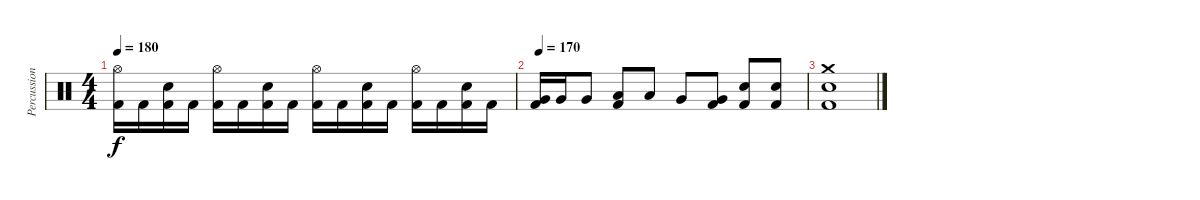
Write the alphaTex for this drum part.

\track ("Percussion" "Percussion") {instrument percussion}
\staff {score}
\articulation defaults
\ts (4 4)
\tempo 180
\clef neutral
\ks c
("Hi-Hat (open)" "Kick (hit) 2").16{dy f} "Kick (hit) 2".16 ("Snare (hit) 2" "Kick (hit) 2").16 "Kick (hit) 2".16 ("Hi-Hat (open)" "Kick (hit) 2").16 "Kick (hit) 2".16 ("Snare (hit) 2" "Kick (hit) 2").16 "Kick (hit) 2".16 ("Hi-Hat (open)" "Kick (hit) 2").16 "Kick (hit) 2".16 ("Snare (hit) 2" "Kick (hit) 2").16 "Kick (hit) 2".16 ("Hi-Hat (open)" "Kick (hit) 2").16 "Kick (hit) 2".16 ("Snare (hit) 2" "Kick (hit) 2").16 "Kick (hit) 2".16 |
\tempo 170
("Very Low Tom (hit)" "Kick (hit) 2").16 "Very Low Tom (hit)".16 "Very Low Tom (hit)".8 ("Low Tom (hit)" "Kick (hit) 2").8 "Low Tom (hit)".8 "Very Low Tom (hit)".8 ("Very Low Tom (hit)" "Kick (hit) 2").8 ("Snare (hit) 2" "Kick (hit) 2").8 ("Snare (hit) 2" "Kick (hit) 2").8 |
("Crash medium (hit)" "Snare (hit) 2" "Kick (hit) 2").1
